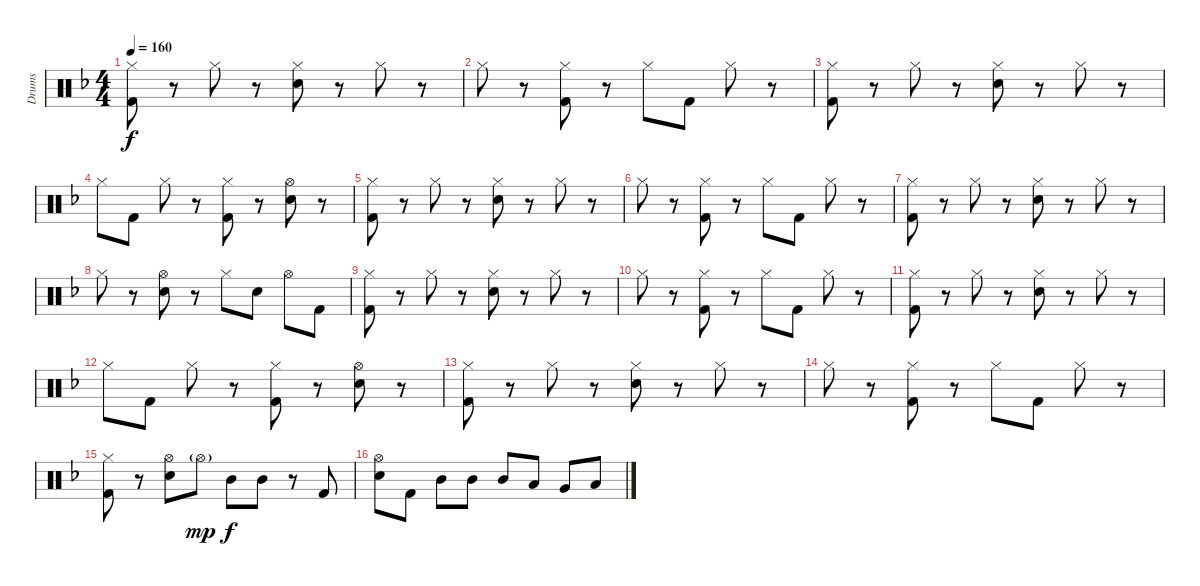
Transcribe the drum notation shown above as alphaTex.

\track ("Drums" "Drums") {instrument percussion}
\staff {score}
\articulation defaults
\ts (4 4)
\tempo 160
\clef neutral
\ks dminor
("Hi-Hat (closed)" "Kick (hit) 2").8{dy f} r.8 "Hi-Hat (closed)".8 r.8 ("Hi-Hat (closed)" "Electric Snare (hit)").8 r.8 "Hi-Hat (closed)".8 r.8 |
"Hi-Hat (closed)".8 r.8 ("Hi-Hat (closed)" "Kick (hit) 2").8 r.8 "Hi-Hat (closed)".8 "Kick (hit) 2".8 "Hi-Hat (closed)".8 r.8 |
("Hi-Hat (closed)" "Kick (hit) 2").8 r.8 "Hi-Hat (closed)".8 r.8 ("Hi-Hat (closed)" "Electric Snare (hit)").8 r.8 "Hi-Hat (closed)".8 r.8 |
"Hi-Hat (closed)".8 "Kick (hit) 2".8 "Hi-Hat (closed)".8 r.8 ("Hi-Hat (closed)" "Kick (hit) 2").8 r.8 ("Hi-Hat (open)" "Electric Snare (hit)").8 r.8 |
("Hi-Hat (closed)" "Kick (hit) 2").8 r.8 "Hi-Hat (closed)".8 r.8 ("Hi-Hat (closed)" "Electric Snare (hit)").8 r.8 "Hi-Hat (closed)".8 r.8 |
"Hi-Hat (closed)".8 r.8 ("Hi-Hat (closed)" "Kick (hit) 2").8 r.8 "Hi-Hat (closed)".8 "Kick (hit) 2".8 "Hi-Hat (closed)".8 r.8 |
("Hi-Hat (closed)" "Kick (hit) 2").8 r.8 "Hi-Hat (closed)".8 r.8 ("Hi-Hat (closed)" "Electric Snare (hit)").8 r.8 "Hi-Hat (closed)".8 r.8 |
"Hi-Hat (closed)".8 r.8 ("Hi-Hat (open)" "Electric Snare (hit)").8 r.8 "Hi-Hat (closed)".8 "Electric Snare (hit)".8 "Hi-Hat (open)".8 "Kick (hit) 2".8 |
("Hi-Hat (closed)" "Kick (hit) 2").8 r.8 "Hi-Hat (closed)".8 r.8 ("Hi-Hat (closed)" "Electric Snare (hit)").8 r.8 "Hi-Hat (closed)".8 r.8 |
"Hi-Hat (closed)".8 r.8 ("Hi-Hat (closed)" "Kick (hit) 2").8 r.8 "Hi-Hat (closed)".8 "Kick (hit) 2".8 "Hi-Hat (closed)".8 r.8 |
("Hi-Hat (closed)" "Kick (hit) 2").8 r.8 "Hi-Hat (closed)".8 r.8 ("Hi-Hat (closed)" "Electric Snare (hit)").8 r.8 "Hi-Hat (closed)".8 r.8 |
"Hi-Hat (closed)".8 "Kick (hit) 2".8 "Hi-Hat (closed)".8 r.8 ("Hi-Hat (closed)" "Kick (hit) 2").8 r.8 ("Hi-Hat (open)" "Electric Snare (hit)").8 r.8 |
("Hi-Hat (closed)" "Kick (hit) 2").8 r.8 "Hi-Hat (closed)".8 r.8 ("Hi-Hat (closed)" "Electric Snare (hit)").8 r.8 "Hi-Hat (closed)".8 r.8 |
"Hi-Hat (closed)".8 r.8 ("Hi-Hat (closed)" "Kick (hit) 2").8 r.8 "Hi-Hat (closed)".8 "Kick (hit) 2".8 "Hi-Hat (closed)".8 r.8 |
("Hi-Hat (closed)" "Kick (hit) 2").8 r.8 ("Hi-Hat (open)" "Electric Snare (hit)").8 "Hi-Hat (open)"{g}.8{dy mp} "Mid Tom (hit)".8{dy f} "Mid Tom (hit)".8 r.8 "Kick (hit) 2".8 |
("Hi-Hat (open)" "Electric Snare (hit)").8 "Kick (hit) 2".8 "Mid Tom (hit)".8 "Mid Tom (hit)".8 "Mid Tom (hit)".8 "Low Tom (hit)".8 "Very Low Tom (hit)".8 "Low Floor Tom (hit)".8
